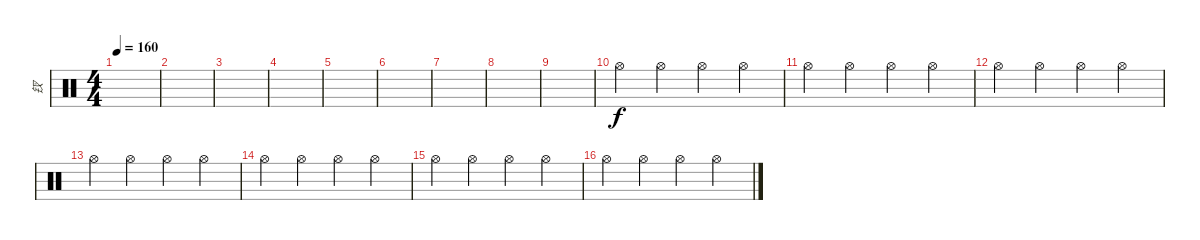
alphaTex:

\track ("钗" "钗") {instrument percussion}
\staff {score}
\articulation defaults
\ts (4 4)
\tempo 160
\clef neutral
\ks c
|
|
|
|
|
|
|
|
|
"Hi-Hat (open)".4 "Hi-Hat (open)".4 "Hi-Hat (open)".4 "Hi-Hat (open)".4 |
"Hi-Hat (open)".4 "Hi-Hat (open)".4 "Hi-Hat (open)".4 "Hi-Hat (open)".4 |
"Hi-Hat (open)".4 "Hi-Hat (open)".4 "Hi-Hat (open)".4 "Hi-Hat (open)".4 |
"Hi-Hat (open)".4 "Hi-Hat (open)".4 "Hi-Hat (open)".4 "Hi-Hat (open)".4 |
"Hi-Hat (open)".4 "Hi-Hat (open)".4 "Hi-Hat (open)".4 "Hi-Hat (open)".4 |
"Hi-Hat (open)".4 "Hi-Hat (open)".4 "Hi-Hat (open)".4 "Hi-Hat (open)".4 |
"Hi-Hat (open)".4 "Hi-Hat (open)".4 "Hi-Hat (open)".4 "Hi-Hat (open)".4
